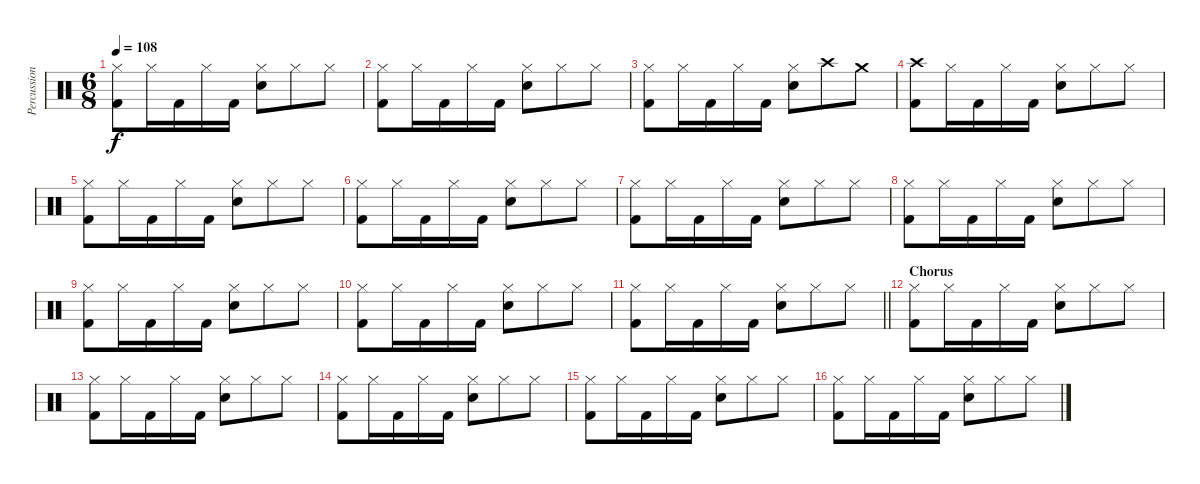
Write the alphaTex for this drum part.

\track ("Percussions" "Percussion") {instrument percussion}
\staff {score}
\articulation defaults
\ts (6 8)
\tempo 108
\clef neutral
\ks c
("Hi-Hat (closed)" "Kick (hit) 2").8{dy f} "Hi-Hat (closed)".16 "Kick (hit) 2".16 "Hi-Hat (closed)".16 "Kick (hit) 2".16 ("Hi-Hat (closed)" "Electric Snare (hit)").8 "Hi-Hat (closed)".8 "Hi-Hat (closed)".8 |
("Hi-Hat (closed)" "Kick (hit) 2").8 "Hi-Hat (closed)".16 "Kick (hit) 2".16 "Hi-Hat (closed)".16 "Kick (hit) 2".16 ("Hi-Hat (closed)" "Electric Snare (hit)").8 "Hi-Hat (closed)".8 "Hi-Hat (closed)".8 |
("Hi-Hat (closed)" "Kick (hit) 2").8 "Hi-Hat (closed)".16 "Kick (hit) 2".16 "Hi-Hat (closed)".16 "Kick (hit) 2".16 ("Hi-Hat (closed)" "Electric Snare (hit)").8 "Crash high (hit)".8 "Crash medium (hit)".8 |
("Crash high (hit)" "Kick (hit) 2").8 "Hi-Hat (closed)".16 "Kick (hit) 2".16 "Hi-Hat (closed)".16 "Kick (hit) 2".16 ("Hi-Hat (closed)" "Electric Snare (hit)").8 "Hi-Hat (closed)".8 "Hi-Hat (closed)".8 |
("Hi-Hat (closed)" "Kick (hit) 2").8 "Hi-Hat (closed)".16 "Kick (hit) 2".16 "Hi-Hat (closed)".16 "Kick (hit) 2".16 ("Hi-Hat (closed)" "Electric Snare (hit)").8 "Hi-Hat (closed)".8 "Hi-Hat (closed)".8 |
("Hi-Hat (closed)" "Kick (hit) 2").8 "Hi-Hat (closed)".16 "Kick (hit) 2".16 "Hi-Hat (closed)".16 "Kick (hit) 2".16 ("Hi-Hat (closed)" "Electric Snare (hit)").8 "Hi-Hat (closed)".8 "Hi-Hat (closed)".8 |
("Hi-Hat (closed)" "Kick (hit) 2").8 "Hi-Hat (closed)".16 "Kick (hit) 2".16 "Hi-Hat (closed)".16 "Kick (hit) 2".16 ("Hi-Hat (closed)" "Electric Snare (hit)").8 "Hi-Hat (closed)".8 "Hi-Hat (closed)".8 |
("Hi-Hat (closed)" "Kick (hit) 2").8 "Hi-Hat (closed)".16 "Kick (hit) 2".16 "Hi-Hat (closed)".16 "Kick (hit) 2".16 ("Hi-Hat (closed)" "Electric Snare (hit)").8 "Hi-Hat (closed)".8 "Hi-Hat (closed)".8 |
("Hi-Hat (closed)" "Kick (hit) 2").8 "Hi-Hat (closed)".16 "Kick (hit) 2".16 "Hi-Hat (closed)".16 "Kick (hit) 2".16 ("Hi-Hat (closed)" "Electric Snare (hit)").8 "Hi-Hat (closed)".8 "Hi-Hat (closed)".8 |
("Hi-Hat (closed)" "Kick (hit) 2").8 "Hi-Hat (closed)".16 "Kick (hit) 2".16 "Hi-Hat (closed)".16 "Kick (hit) 2".16 ("Hi-Hat (closed)" "Electric Snare (hit)").8 "Hi-Hat (closed)".8 "Hi-Hat (closed)".8 |
\barLineRight lightlight
("Hi-Hat (closed)" "Kick (hit) 2").8 "Hi-Hat (closed)".16 "Kick (hit) 2".16 "Hi-Hat (closed)".16 "Kick (hit) 2".16 ("Hi-Hat (closed)" "Electric Snare (hit)").8 "Hi-Hat (closed)".8 "Hi-Hat (closed)".8 |
\section ("" "Chorus")
("Hi-Hat (closed)" "Kick (hit) 2").8 "Hi-Hat (closed)".16 "Kick (hit) 2".16 "Hi-Hat (closed)".16 "Kick (hit) 2".16 ("Hi-Hat (closed)" "Electric Snare (hit)").8 "Hi-Hat (closed)".8 "Hi-Hat (closed)".8 |
("Hi-Hat (closed)" "Kick (hit) 2").8 "Hi-Hat (closed)".16 "Kick (hit) 2".16 "Hi-Hat (closed)".16 "Kick (hit) 2".16 ("Hi-Hat (closed)" "Electric Snare (hit)").8 "Hi-Hat (closed)".8 "Hi-Hat (closed)".8 |
("Hi-Hat (closed)" "Kick (hit) 2").8 "Hi-Hat (closed)".16 "Kick (hit) 2".16 "Hi-Hat (closed)".16 "Kick (hit) 2".16 ("Hi-Hat (closed)" "Electric Snare (hit)").8 "Hi-Hat (closed)".8 "Hi-Hat (closed)".8 |
("Hi-Hat (closed)" "Kick (hit) 2").8 "Hi-Hat (closed)".16 "Kick (hit) 2".16 "Hi-Hat (closed)".16 "Kick (hit) 2".16 ("Hi-Hat (closed)" "Electric Snare (hit)").8 "Hi-Hat (closed)".8 "Hi-Hat (closed)".8 |
("Hi-Hat (closed)" "Kick (hit) 2").8 "Hi-Hat (closed)".16 "Kick (hit) 2".16 "Hi-Hat (closed)".16 "Kick (hit) 2".16 ("Hi-Hat (closed)" "Electric Snare (hit)").8 "Hi-Hat (closed)".8 "Hi-Hat (closed)".8
